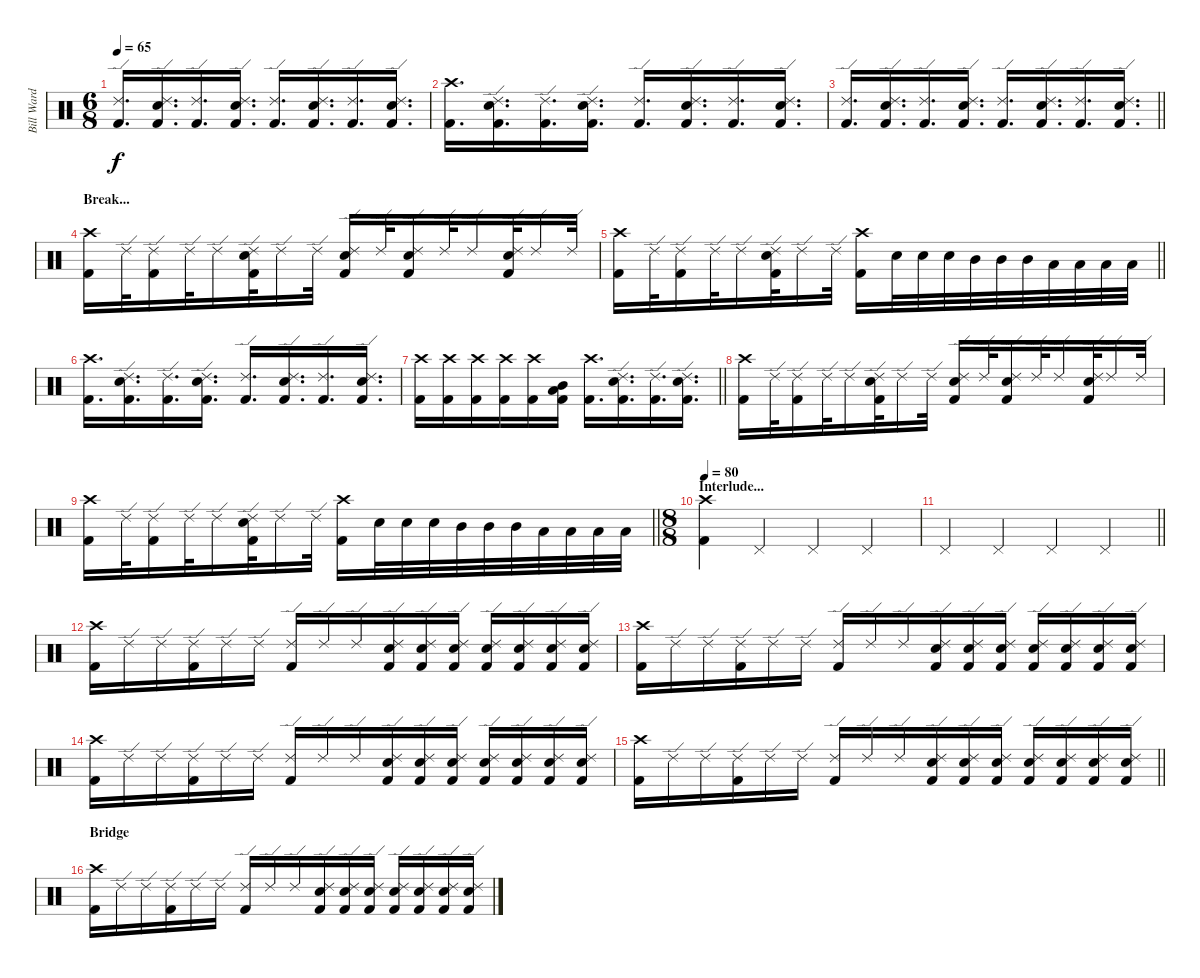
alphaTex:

\track ("Bill Ward (Drums)" "Bill Ward ") {instrument percussion}
\staff {score}
\articulation defaults
\ts (6 8)
\tempo 65
\clef neutral
\ks c
("Kick (hit) 2" "Ride (edge) 2").16{d dy f} ("Kick (hit) 2" "Snare (hit) 2" "Ride (edge) 2").16{d} ("Kick (hit) 2" "Ride (edge) 2").16{d} ("Kick (hit) 2" "Snare (hit) 2" "Ride (edge) 2").16{d} ("Kick (hit) 2" "Ride (edge) 2").16{d} ("Kick (hit) 2" "Snare (hit) 2" "Ride (edge) 2").16{d} ("Kick (hit) 2" "Ride (edge) 2").16{d} ("Kick (hit) 2" "Snare (hit) 2" "Ride (edge) 2").16{d} |
("Kick (hit) 2" "Crash high (hit)").16{d} ("Kick (hit) 2" "Snare (hit) 2" "Ride (edge) 2").16{d} ("Kick (hit) 2" "Ride (edge) 2").16{d} ("Kick (hit) 2" "Snare (hit) 2" "Ride (edge) 2").16{d} ("Kick (hit) 2" "Ride (edge) 2").16{d} ("Kick (hit) 2" "Snare (hit) 2" "Ride (edge) 2").16{d} ("Kick (hit) 2" "Ride (edge) 2").16{d} ("Kick (hit) 2" "Snare (hit) 2" "Ride (edge) 2").16{d} |
\barLineRight lightlight
("Kick (hit) 2" "Ride (edge) 2").16{d} ("Kick (hit) 2" "Snare (hit) 2" "Ride (edge) 2").16{d} ("Kick (hit) 2" "Ride (edge) 2").16{d} ("Kick (hit) 2" "Snare (hit) 2" "Ride (edge) 2").16{d} ("Kick (hit) 2" "Ride (edge) 2").16{d} ("Kick (hit) 2" "Snare (hit) 2" "Ride (edge) 2").16{d} ("Kick (hit) 2" "Ride (edge) 2").16{d} ("Kick (hit) 2" "Snare (hit) 2" "Ride (edge) 2").16{d} |
\section ("" "Break...")
("Kick (hit) 2" "Crash high (hit)").16 "Ride (edge) 2".32 ("Kick (hit) 2" "Ride (edge) 2").16 "Ride (edge) 2".32 "Ride (edge) 2".16 ("Kick (hit) 2" "Snare (hit) 2" "Ride (edge) 2").32 "Ride (edge) 2".16 "Ride (edge) 2".32 ("Kick (hit) 2" "Snare (hit) 2" "Ride (edge) 2").16 "Ride (edge) 2".32 ("Kick (hit) 2" "Snare (hit) 2" "Ride (edge) 2").16 "Ride (edge) 2".32 "Ride (edge) 2".16 ("Kick (hit) 2" "Snare (hit) 2" "Ride (edge) 2").32 "Ride (edge) 2".16 "Ride (edge) 2".32 |
\barLineRight lightlight
("Kick (hit) 2" "Crash high (hit)").16 "Ride (edge) 2".32 ("Kick (hit) 2" "Ride (edge) 2").16 "Ride (edge) 2".32 "Ride (edge) 2".16 ("Kick (hit) 2" "Snare (hit) 2" "Ride (edge) 2").32 "Ride (edge) 2".16 "Ride (edge) 2".32 ("Kick (hit) 2" "Crash high (hit)").16 "Snare (hit) 2".32 "Snare (hit) 2".32 "Snare (hit) 2".32 "Mid Tom (hit)".32 "Mid Tom (hit)".32 "Mid Tom (hit)".32 "Low Tom (hit)".32 "Low Tom (hit)".32 "Low Tom (hit)".32 "Low Tom (hit)".32 |
("Kick (hit) 2" "Crash high (hit)").16{d} ("Kick (hit) 2" "Snare (hit) 2" "Ride (edge) 2").16{d} ("Kick (hit) 2" "Ride (edge) 2").16{d} ("Kick (hit) 2" "Snare (hit) 2" "Ride (edge) 2").16{d} ("Kick (hit) 2" "Ride (edge) 2").16{d} ("Kick (hit) 2" "Snare (hit) 2" "Ride (edge) 2").16{d} ("Kick (hit) 2" "Ride (edge) 2").16{d} ("Kick (hit) 2" "Snare (hit) 2" "Ride (edge) 2").16{d} |
\barLineRight lightlight
("Kick (hit) 2" "Crash high (hit)").16 ("Kick (hit) 2" "Crash high (hit)").16 ("Kick (hit) 2" "Crash high (hit)").16 ("Kick (hit) 2" "Crash high (hit)").16 ("Kick (hit) 2" "Crash high (hit)").16 ("Kick (hit) 2" "Mid Tom (hit)" "Low Floor Tom (hit)").16 ("Kick (hit) 2" "Crash high (hit)").16{d} ("Kick (hit) 2" "Snare (hit) 2" "Ride (edge) 2").16{d} ("Kick (hit) 2" "Ride (edge) 2").16{d} ("Kick (hit) 2" "Snare (hit) 2" "Ride (edge) 2").16{d} |
("Kick (hit) 2" "Crash high (hit)").16 "Ride (edge) 2".32 ("Kick (hit) 2" "Ride (edge) 2").16 "Ride (edge) 2".32 "Ride (edge) 2".16 ("Kick (hit) 2" "Snare (hit) 2" "Ride (edge) 2").32 "Ride (edge) 2".16 "Ride (edge) 2".32 ("Kick (hit) 2" "Snare (hit) 2" "Ride (edge) 2").16 "Ride (edge) 2".32 ("Kick (hit) 2" "Snare (hit) 2" "Ride (edge) 2").16 "Ride (edge) 2".32 "Ride (edge) 2".16 ("Kick (hit) 2" "Snare (hit) 2" "Ride (edge) 2").32 "Ride (edge) 2".16 "Ride (edge) 2".32 |
\barLineRight lightlight
("Kick (hit) 2" "Crash high (hit)").16 "Ride (edge) 2".32 ("Kick (hit) 2" "Ride (edge) 2").16 "Ride (edge) 2".32 "Ride (edge) 2".16 ("Kick (hit) 2" "Snare (hit) 2" "Ride (edge) 2").32 "Ride (edge) 2".16 "Ride (edge) 2".32 ("Kick (hit) 2" "Crash high (hit)").16 "Snare (hit) 2".32 "Snare (hit) 2".32 "Snare (hit) 2".32 "Mid Tom (hit)".32 "Mid Tom (hit)".32 "Mid Tom (hit)".32 "Low Tom (hit)".32 "Low Tom (hit)".32 "Low Tom (hit)".32 "Low Tom (hit)".32 |
\ts (8 8)
\section ("" "Interlude...")
\tempo 80
("Kick (hit) 2" "Crash high (hit)").4 "Pedal Hi-Hat (hit)".4 "Pedal Hi-Hat (hit)".4 "Pedal Hi-Hat (hit)".4 |
\barLineRight lightlight "Pedal Hi-Hat (hit)".4 "Pedal Hi-Hat (hit)".4 "Pedal Hi-Hat (hit)".4 "Pedal Hi-Hat (hit)".4
|
("Kick (hit) 2" "Crash high (hit)").16 "Ride (edge) 2".16 "Ride (edge) 2".16 ("Kick (hit) 2" "Ride (edge) 2").16 "Ride (edge) 2".16 "Ride (edge) 2".16 ("Kick (hit) 2" "Ride (edge) 2").16 "Ride (edge) 2".16 "Ride (edge) 2".16 ("Kick (hit) 2" "Snare (hit) 2" "Ride (edge) 2").16 ("Kick (hit) 2" "Snare (hit) 2" "Ride (edge) 2").16 ("Kick (hit) 2" "Snare (hit) 2" "Ride (edge) 2").16 ("Kick (hit) 2" "Snare (hit) 2" "Ride (edge) 2").16 ("Kick (hit) 2" "Snare (hit) 2" "Ride (edge) 2").16 ("Kick (hit) 2" "Snare (hit) 2" "Ride (edge) 2").16 ("Kick (hit) 2" "Snare (hit) 2" "Ride (edge) 2").16 |
("Kick (hit) 2" "Crash high (hit)").16 "Ride (edge) 2".16 "Ride (edge) 2".16 ("Kick (hit) 2" "Ride (edge) 2").16 "Ride (edge) 2".16 "Ride (edge) 2".16 ("Kick (hit) 2" "Ride (edge) 2").16 "Ride (edge) 2".16 "Ride (edge) 2".16 ("Kick (hit) 2" "Snare (hit) 2" "Ride (edge) 2").16 ("Kick (hit) 2" "Snare (hit) 2" "Ride (edge) 2").16 ("Kick (hit) 2" "Snare (hit) 2" "Ride (edge) 2").16 ("Kick (hit) 2" "Snare (hit) 2" "Ride (edge) 2").16 ("Kick (hit) 2" "Snare (hit) 2" "Ride (edge) 2").16 ("Kick (hit) 2" "Snare (hit) 2" "Ride (edge) 2").16 ("Kick (hit) 2" "Snare (hit) 2" "Ride (edge) 2").16 |
("Kick (hit) 2" "Crash high (hit)").16 "Ride (edge) 2".16 "Ride (edge) 2".16 ("Kick (hit) 2" "Ride (edge) 2").16 "Ride (edge) 2".16 "Ride (edge) 2".16 ("Kick (hit) 2" "Ride (edge) 2").16 "Ride (edge) 2".16 "Ride (edge) 2".16 ("Kick (hit) 2" "Snare (hit) 2" "Ride (edge) 2").16 ("Kick (hit) 2" "Snare (hit) 2" "Ride (edge) 2").16 ("Kick (hit) 2" "Snare (hit) 2" "Ride (edge) 2").16 ("Kick (hit) 2" "Snare (hit) 2" "Ride (edge) 2").16 ("Kick (hit) 2" "Snare (hit) 2" "Ride (edge) 2").16 ("Kick (hit) 2" "Snare (hit) 2" "Ride (edge) 2").16 ("Kick (hit) 2" "Snare (hit) 2" "Ride (edge) 2").16 |
\barLineRight lightlight
("Kick (hit) 2" "Crash high (hit)").16 "Ride (edge) 2".16 "Ride (edge) 2".16 ("Kick (hit) 2" "Ride (edge) 2").16 "Ride (edge) 2".16 "Ride (edge) 2".16 ("Kick (hit) 2" "Ride (edge) 2").16 "Ride (edge) 2".16 "Ride (edge) 2".16 ("Kick (hit) 2" "Snare (hit) 2" "Ride (edge) 2").16 ("Kick (hit) 2" "Snare (hit) 2" "Ride (edge) 2").16 ("Kick (hit) 2" "Snare (hit) 2" "Ride (edge) 2").16 ("Kick (hit) 2" "Snare (hit) 2" "Ride (edge) 2").16 ("Kick (hit) 2" "Snare (hit) 2" "Ride (edge) 2").16 ("Kick (hit) 2" "Snare (hit) 2" "Ride (edge) 2").16 ("Kick (hit) 2" "Snare (hit) 2" "Ride (edge) 2").16 |
\section ("" "Bridge")
("Kick (hit) 2" "Crash high (hit)").16 "Ride (edge) 2".16 "Ride (edge) 2".16 ("Kick (hit) 2" "Ride (edge) 2").16 "Ride (edge) 2".16 "Ride (edge) 2".16 ("Kick (hit) 2" "Ride (edge) 2").16 "Ride (edge) 2".16 "Ride (edge) 2".16 ("Kick (hit) 2" "Snare (hit) 2" "Ride (edge) 2").16 ("Kick (hit) 2" "Snare (hit) 2" "Ride (edge) 2").16 ("Kick (hit) 2" "Snare (hit) 2" "Ride (edge) 2").16 ("Kick (hit) 2" "Snare (hit) 2" "Ride (edge) 2").16 ("Kick (hit) 2" "Snare (hit) 2" "Ride (edge) 2").16 ("Kick (hit) 2" "Snare (hit) 2" "Ride (edge) 2").16 ("Kick (hit) 2" "Snare (hit) 2" "Ride (edge) 2").16
